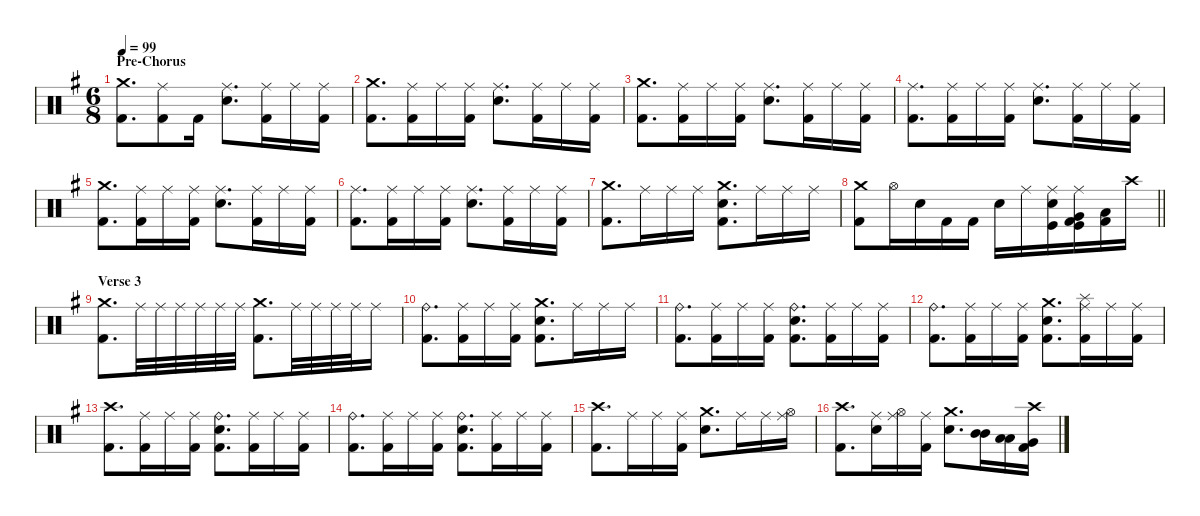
\defaultSystemsLayout 4
\hideDynamics
\bracketExtendMode nobrackets
\singleTrackTrackNamePolicy hidden
\multiTrackTrackNamePolicy hidden
\otherSystemsTrackNameOrientation horizontal
\track ("Dave Abbruzzese" "drm.") {defaultSystemsLayout 4 instrument percussion}
\staff {score}
\articulation defaults
\ts (6 8)
\section ("" "Pre-Chorus")
\tempo 99
\clef neutral
\ks g
("Crash medium (hit)"{acc forcenatural} "Kick (hit) 2"{acc forcenatural}).8{d dy f beam Down} ("Ride (middle)"{acc forcenatural} "Kick (hit) 2"{acc forcenatural}).8{beam Down} "Kick (hit) 2"{acc forcenatural}.16{beam Down} ("Ride (middle)"{acc forcenatural} "Snare (hit) 2"{acc forcenatural}).8{d beam Down} ("Ride (middle)"{acc forcenatural} "Kick (hit) 2"{acc forcenatural}).16{dy mf beam Down} "Ride (middle)"{acc forcenatural}.16{dy mp beam Down} ("Ride (middle)"{acc forcenatural} "Kick (hit) 2"{acc forcenatural}).16{beam Down} |
("Crash medium (hit)"{acc forcenatural} "Kick (hit) 2"{acc forcenatural}).8{d dy f beam Down} ("Ride (middle)"{acc forcenatural} "Kick (hit) 2"{acc forcenatural}).16{dy mf beam Down} "Ride (middle)"{acc forcenatural}.16{dy p beam Down} ("Ride (middle)"{acc forcenatural} "Kick (hit) 2"{acc forcenatural}).16{dy mp beam Down} ("Ride (middle)"{acc forcenatural} "Snare (hit) 2"{acc forcenatural}).8{d dy f beam Down} ("Ride (middle)"{acc forcenatural} "Kick (hit) 2"{acc forcenatural}).16{dy mf beam Down} "Ride (middle)"{acc forcenatural}.16{dy mp beam Down} ("Ride (middle)"{acc forcenatural} "Kick (hit) 2"{acc forcenatural}).16{beam Down} |
("Crash medium (hit)"{acc forcenatural} "Kick (hit) 2"{acc forcenatural}).8{d dy f beam Down} ("Ride (middle)"{acc forcenatural} "Kick (hit) 2"{acc forcenatural}).16{dy mf beam Down} "Ride (middle)"{acc forcenatural}.16{dy p beam Down} ("Ride (middle)"{acc forcenatural} "Kick (hit) 2"{acc forcenatural}).16{dy mp beam Down} ("Ride (middle)"{acc forcenatural} "Snare (hit) 2"{acc forcenatural}).8{d dy f beam Down} ("Ride (middle)"{acc forcenatural} "Kick (hit) 2"{acc forcenatural}).16{dy mf beam Down} "Ride (middle)"{acc forcenatural}.16{dy mp beam Down} ("Ride (middle)"{acc forcenatural} "Kick (hit) 2"{acc forcenatural}).16{beam Down} |
("Ride (middle)"{acc forcenatural} "Kick (hit) 2"{acc forcenatural}).8{d dy mf beam Down} ("Ride (middle)"{acc forcenatural} "Kick (hit) 2"{acc forcenatural}).16{beam Down} "Ride (middle)"{acc forcenatural}.16{dy p beam Down} ("Ride (middle)"{acc forcenatural} "Kick (hit) 2"{acc forcenatural}).16{dy mp beam Down} ("Ride (middle)"{acc forcenatural} "Snare (hit) 2"{acc forcenatural}).8{d dy f beam Down} ("Ride (middle)"{acc forcenatural} "Kick (hit) 2"{acc forcenatural}).16{dy mf beam Down} "Ride (middle)"{acc forcenatural}.16{dy mp beam Down} ("Ride (middle)"{acc forcenatural} "Kick (hit) 2"{acc forcenatural}).16{beam Down} |
("Crash medium (hit)"{acc forcenatural} "Kick (hit) 2"{acc forcenatural}).8{d dy f beam Down} ("Ride (middle)"{acc forcenatural} "Kick (hit) 2"{acc forcenatural}).16{dy mf beam Down} "Ride (middle)"{acc forcenatural}.16{dy p beam Down} ("Ride (middle)"{acc forcenatural} "Kick (hit) 2"{acc forcenatural}).16{dy mp beam Down} ("Ride (middle)"{acc forcenatural} "Snare (hit) 2"{acc forcenatural}).8{d dy f beam Down} ("Ride (middle)"{acc forcenatural} "Kick (hit) 2"{acc forcenatural}).16{dy mf beam Down} "Ride (middle)"{acc forcenatural}.16{dy mp beam Down} ("Ride (middle)"{acc forcenatural} "Kick (hit) 2"{acc forcenatural}).16{beam Down} |
("Ride (middle)"{acc forcenatural} "Kick (hit) 2"{acc forcenatural}).8{d dy mf beam Down} ("Ride (middle)"{acc forcenatural} "Kick (hit) 2"{acc forcenatural}).16{beam Down} "Ride (middle)"{acc forcenatural}.16{dy p beam Down} ("Ride (middle)"{acc forcenatural} "Kick (hit) 2"{acc forcenatural}).16{dy mp beam Down} ("Ride (middle)"{acc forcenatural} "Snare (hit) 2"{acc forcenatural}).8{d dy f beam Down} ("Ride (middle)"{acc forcenatural} "Kick (hit) 2"{acc forcenatural}).16{dy mf beam Down} "Ride (middle)"{acc forcenatural}.16{dy mp beam Down} ("Ride (middle)"{acc forcenatural} "Kick (hit) 2"{acc forcenatural}).16{beam Down} |
("Crash medium (hit)"{acc forcenatural} "Kick (hit) 2"{acc forcenatural}).8{d dy mf beam Down} "Ride (middle)"{acc forcenatural}.16{beam Down} "Ride (middle)"{acc forcenatural}.16{dy p beam Down} "Ride (middle)"{acc forcenatural}.16{dy mf beam Down} ("Crash medium (hit)"{acc forcenatural} "Snare (hit) 2"{acc forcenatural} "Kick (hit) 2"{acc forcenatural}).8{d beam Down} "Ride (middle)"{acc forcenatural}.16{beam Down} "Ride (middle)"{acc forcenatural}.16{dy p beam Down} "Ride (middle)"{acc forcenatural}.16{dy mf beam Down} |
\barLineRight lightlight
("Crash medium (hit)"{acc forcenatural} "Kick (hit) 2"{acc forcenatural}).8{dy f beam Down} "Hi-Hat (open)"{acc forcenatural}.16{beam Down} "Snare (hit) 2"{acc forcenatural}.16{beam Down} "Kick (hit) 2"{acc forcenatural}.16{beam Down} "Kick (hit) 2"{acc forcenatural}.16{beam Down} "Snare (hit) 2"{acc forcenatural}.16{beam Down} "Ride (middle)"{acc forcenatural}.16{dy mp beam Down} ("Ride (middle)"{acc forcenatural} "Snare (hit) 2"{acc forcenatural} "Kick (hit)"{acc forcenatural}).16{dy p beam Down} ("Ride (middle)"{acc forcenatural} "Very Low Tom (hit)"{acc forcenatural} "Kick (hit)"{acc forcenatural} "Kick (hit) 2"{acc forcenatural}).16{dy mp beam Down} ("Low Floor Tom (hit)"{acc forcenatural} "Kick (hit) 2"{acc forcenatural}).16{dy f beam Down} "Crash high (hit)"{acc forcenatural}.16{dy p beam Down} |
\section ("" "Verse 3")
("Crash medium (hit)"{acc forcenatural} "Kick (hit) 2"{acc forcenatural}).8{d dy f beam Down} "Ride (middle)"{acc forcenatural}.32{dy p beam Down} "Ride (middle)"{acc forcenatural}.32{beam Down} "Ride (middle)"{acc forcenatural}.32{beam Down} "Ride (middle)"{acc forcenatural}.32{beam Down} "Ride (middle)"{acc forcenatural}.32{dy mp beam Down} "Ride (middle)"{acc forcenatural}.32{dy p beam Down} ("Crash medium (hit)"{acc forcenatural} "Kick (hit) 2"{acc forcenatural}).8{d dy f beam Down} "Ride (middle)"{acc forcenatural}.32{dy p beam Down} "Ride (middle)"{acc forcenatural}.32{beam Down} "Ride (middle)"{acc forcenatural}.32{beam Down} "Ride (middle)"{acc forcenatural}.32{beam Down} "Ride (middle)"{acc forcenatural}.16{dy mf beam Down} |
("Ride (bell)"{acc forcenatural} "Kick (hit) 2"{acc forcenatural}).8{d dy f beam Down} ("Ride (middle)"{acc forcenatural} "Kick (hit) 2"{acc forcenatural}).16{dy p beam Down} "Ride (middle)"{acc forcenatural}.16{beam Down} ("Ride (middle)"{acc forcenatural} "Kick (hit) 2"{acc forcenatural}).16{beam Down} ("Crash medium (hit)"{acc forcenatural} "Snare (hit) 2"{acc forcenatural} "Kick (hit) 2"{acc forcenatural}).8{d dy f beam Down} "Ride (middle)"{acc forcenatural}.16{dy p beam Down} "Ride (middle)"{acc forcenatural}.16{beam Down} "Ride (middle)"{acc forcenatural}.16{beam Down} |
("Ride (bell)"{acc forcenatural} "Kick (hit) 2"{acc forcenatural}).8{d dy f beam Down} ("Ride (middle)"{acc forcenatural} "Kick (hit) 2"{acc forcenatural}).16{dy p beam Down} "Ride (middle)"{acc forcenatural}.16{beam Down} ("Ride (middle)"{acc forcenatural} "Kick (hit) 2"{acc forcenatural}).16{beam Down} ("Ride (bell)"{acc forcenatural} "Snare (hit) 2"{acc forcenatural} "Kick (hit) 2"{acc forcenatural}).8{d dy f beam Down} ("Ride (middle)"{acc forcenatural} "Kick (hit) 2"{acc forcenatural}).16{dy p beam Down} "Ride (middle)"{acc forcenatural}.16{beam Down} ("Ride (middle)"{acc forcenatural} "Kick (hit) 2"{acc forcenatural}).16{beam Down} |
("Ride (bell)"{acc forcenatural} "Kick (hit) 2"{acc forcenatural}).8{d dy f beam Down} ("Ride (middle)"{acc forcenatural} "Kick (hit) 2"{acc forcenatural}).16{dy p beam Down} "Ride (middle)"{acc forcenatural}.16{beam Down} ("Ride (middle)"{acc forcenatural} "Kick (hit) 2"{acc forcenatural}).16{beam Down} ("Crash medium (hit)"{acc forcenatural} "Snare (hit) 2"{acc forcenatural} "Kick (hit) 2"{acc forcenatural}).8{d dy f beam Down} ("Splash (hit)"{acc forcenatural} "Ride (middle)"{acc forcenatural} "Kick (hit) 2"{acc forcenatural}).16{beam Down} "Ride (middle)"{acc forcenatural}.16{dy p beam Down} ("Ride (middle)"{acc forcenatural} "Kick (hit) 2"{acc forcenatural}).16{beam Down} |
("Crash high (hit)"{acc forcenatural} "Kick (hit) 2"{acc forcenatural}).8{d dy f beam Down} ("Ride (middle)"{acc forcenatural} "Kick (hit) 2"{acc forcenatural}).16{dy p beam Down} "Ride (middle)"{acc forcenatural}.16{beam Down} ("Ride (middle)"{acc forcenatural} "Kick (hit) 2"{acc forcenatural}).16{beam Down} ("Ride (bell)"{acc forcenatural} "Snare (hit) 2"{acc forcenatural} "Kick (hit) 2"{acc forcenatural}).8{d dy f beam Down} ("Ride (middle)"{acc forcenatural} "Kick (hit) 2"{acc forcenatural}).16{dy p beam Down} "Ride (middle)"{acc forcenatural}.16{beam Down} ("Ride (middle)"{acc forcenatural} "Kick (hit) 2"{acc forcenatural}).16{beam Down} |
("Ride (bell)"{acc forcenatural} "Kick (hit) 2"{acc forcenatural}).8{d dy f beam Down} ("Ride (middle)"{acc forcenatural} "Kick (hit) 2"{acc forcenatural}).16{dy p beam Down} "Ride (middle)"{acc forcenatural}.16{beam Down} ("Ride (middle)"{acc forcenatural} "Kick (hit) 2"{acc forcenatural}).16{beam Down} ("Ride (bell)"{acc forcenatural} "Snare (hit) 2"{acc forcenatural} "Kick (hit) 2"{acc forcenatural}).8{d dy f beam Down} ("Ride (middle)"{acc forcenatural} "Kick (hit) 2"{acc forcenatural}).16{dy p beam Down} "Ride (middle)"{acc forcenatural}.16{beam Down} ("Ride (middle)"{acc forcenatural} "Kick (hit) 2"{acc forcenatural}).16{beam Down} |
("Crash high (hit)"{acc forcenatural} "Kick (hit) 2"{acc forcenatural}).8{d dy f beam Down} "Ride (middle)"{acc forcenatural}.16{dy p beam Down} "Ride (middle)"{acc forcenatural}.16{beam Down} ("Ride (middle)"{acc forcenatural} "Kick (hit) 2"{acc forcenatural}).16{beam Down} ("Crash medium (hit)"{acc forcenatural} "Snare (hit) 2"{acc forcenatural}).8{d dy f beam Down} "Ride (middle)"{acc forcenatural}.16{dy p beam Down} "Ride (middle)"{acc forcenatural}.16{beam Down} ("Ride (middle)"{acc forcenatural} "Hi-Hat (open)"{acc forcenatural}).16{beam Down} |
("Crash high (hit)"{acc forcenatural} "Kick (hit) 2"{acc forcenatural}).8{d dy f beam Down} ("Ride (middle)"{acc forcenatural} "Snare (hit) 2"{acc forcenatural}).16{dy p beam Down} ("Ride (middle)"{acc forcenatural} "Hi-Hat (open)"{acc forcenatural}).16{beam Down} ("Ride (middle)"{acc forcenatural} "Kick (hit) 2"{acc forcenatural}).16{beam Down} ("Crash medium (hit)"{acc forcenatural} "Snare (hit) 2"{acc forcenatural}).8{d dy f beam Down} ("Mid Tom (hit)"{acc forcenatural} "Mid Tom (hit)"{acc forcenatural}).16{beam Down} ("Low Tom (hit)"{acc forcenatural} "Low Tom (hit)"{acc forcenatural}).16{beam Down} ("Crash high (hit)"{acc forcenatural} "Very Low Tom (hit)"{acc forcenatural} "Kick (hit) 2"{acc forcenatural}).16{beam Down}
